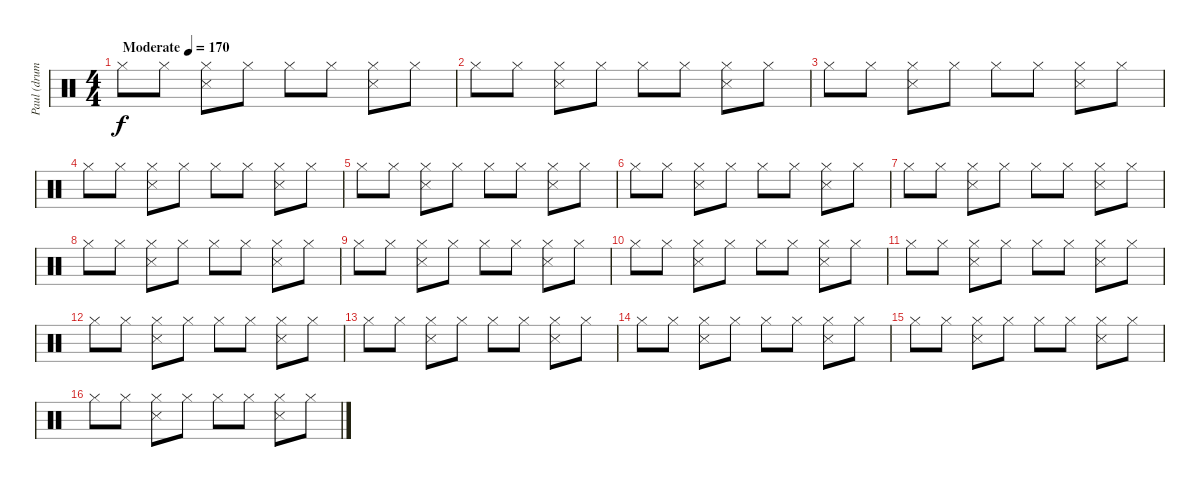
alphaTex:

\track ("Paul (drums)" "Paul (drum") {instrument percussion}
\staff {score}
\articulation defaults
\ts (4 4)
\tempo (170 "Moderate")
\clef neutral
\ks c "Hi-Hat (closed)".8{dy f} "Hi-Hat (closed)".8
("Snare (side stick) 3" "Hi-Hat (closed)").8 "Hi-Hat (closed)".8 "Hi-Hat (closed)".8 "Hi-Hat (closed)".8 ("Snare (side stick) 3" "Hi-Hat (closed)").8 "Hi-Hat (closed)".8 |
"Hi-Hat (closed)".8 "Hi-Hat (closed)".8 ("Snare (side stick) 3" "Hi-Hat (closed)").8 "Hi-Hat (closed)".8 "Hi-Hat (closed)".8 "Hi-Hat (closed)".8 ("Snare (side stick) 3" "Hi-Hat (closed)").8 "Hi-Hat (closed)".8 |
"Hi-Hat (closed)".8 "Hi-Hat (closed)".8 ("Snare (side stick) 3" "Hi-Hat (closed)").8 "Hi-Hat (closed)".8 "Hi-Hat (closed)".8 "Hi-Hat (closed)".8 ("Snare (side stick) 3" "Hi-Hat (closed)").8 "Hi-Hat (closed)".8 |
"Hi-Hat (closed)".8 "Hi-Hat (closed)".8 ("Snare (side stick) 3" "Hi-Hat (closed)").8 "Hi-Hat (closed)".8 "Hi-Hat (closed)".8 "Hi-Hat (closed)".8 ("Snare (side stick) 3" "Hi-Hat (closed)").8 "Hi-Hat (closed)".8 |
"Hi-Hat (closed)".8 "Hi-Hat (closed)".8 ("Snare (side stick) 3" "Hi-Hat (closed)").8 "Hi-Hat (closed)".8 "Hi-Hat (closed)".8 "Hi-Hat (closed)".8 ("Snare (side stick) 3" "Hi-Hat (closed)").8 "Hi-Hat (closed)".8 |
"Hi-Hat (closed)".8 "Hi-Hat (closed)".8 ("Snare (side stick) 3" "Hi-Hat (closed)").8 "Hi-Hat (closed)".8 "Hi-Hat (closed)".8 "Hi-Hat (closed)".8 ("Snare (side stick) 3" "Hi-Hat (closed)").8 "Hi-Hat (closed)".8 |
"Hi-Hat (closed)".8 "Hi-Hat (closed)".8 ("Snare (side stick) 3" "Hi-Hat (closed)").8 "Hi-Hat (closed)".8 "Hi-Hat (closed)".8 "Hi-Hat (closed)".8 ("Snare (side stick) 3" "Hi-Hat (closed)").8 "Hi-Hat (closed)".8 |
"Hi-Hat (closed)".8 "Hi-Hat (closed)".8 ("Snare (side stick) 3" "Hi-Hat (closed)").8 "Hi-Hat (closed)".8 "Hi-Hat (closed)".8 "Hi-Hat (closed)".8 ("Snare (side stick) 3" "Hi-Hat (closed)").8 "Hi-Hat (closed)".8 |
"Hi-Hat (closed)".8 "Hi-Hat (closed)".8 ("Snare (side stick) 3" "Hi-Hat (closed)").8 "Hi-Hat (closed)".8 "Hi-Hat (closed)".8 "Hi-Hat (closed)".8 ("Snare (side stick) 3" "Hi-Hat (closed)").8 "Hi-Hat (closed)".8 |
"Hi-Hat (closed)".8 "Hi-Hat (closed)".8 ("Snare (side stick) 3" "Hi-Hat (closed)").8 "Hi-Hat (closed)".8 "Hi-Hat (closed)".8 "Hi-Hat (closed)".8 ("Snare (side stick) 3" "Hi-Hat (closed)").8 "Hi-Hat (closed)".8 |
"Hi-Hat (closed)".8 "Hi-Hat (closed)".8 ("Snare (side stick) 3" "Hi-Hat (closed)").8 "Hi-Hat (closed)".8 "Hi-Hat (closed)".8 "Hi-Hat (closed)".8 ("Snare (side stick) 3" "Hi-Hat (closed)").8 "Hi-Hat (closed)".8 |
"Hi-Hat (closed)".8 "Hi-Hat (closed)".8 ("Snare (side stick) 3" "Hi-Hat (closed)").8 "Hi-Hat (closed)".8 "Hi-Hat (closed)".8 "Hi-Hat (closed)".8 ("Snare (side stick) 3" "Hi-Hat (closed)").8 "Hi-Hat (closed)".8 |
"Hi-Hat (closed)".8 "Hi-Hat (closed)".8 ("Snare (side stick) 3" "Hi-Hat (closed)").8 "Hi-Hat (closed)".8 "Hi-Hat (closed)".8 "Hi-Hat (closed)".8 ("Snare (side stick) 3" "Hi-Hat (closed)").8 "Hi-Hat (closed)".8 |
"Hi-Hat (closed)".8 "Hi-Hat (closed)".8 ("Snare (side stick) 3" "Hi-Hat (closed)").8 "Hi-Hat (closed)".8 "Hi-Hat (closed)".8 "Hi-Hat (closed)".8 ("Snare (side stick) 3" "Hi-Hat (closed)").8 "Hi-Hat (closed)".8 |
"Hi-Hat (closed)".8 "Hi-Hat (closed)".8 ("Snare (side stick) 3" "Hi-Hat (closed)").8 "Hi-Hat (closed)".8 "Hi-Hat (closed)".8 "Hi-Hat (closed)".8 ("Snare (side stick) 3" "Hi-Hat (closed)").8 "Hi-Hat (closed)".8 |
"Hi-Hat (closed)".8 "Hi-Hat (closed)".8 ("Snare (side stick) 3" "Hi-Hat (closed)").8 "Hi-Hat (closed)".8 "Hi-Hat (closed)".8 "Hi-Hat (closed)".8 ("Snare (side stick) 3" "Hi-Hat (closed)").8 "Hi-Hat (closed)".8
